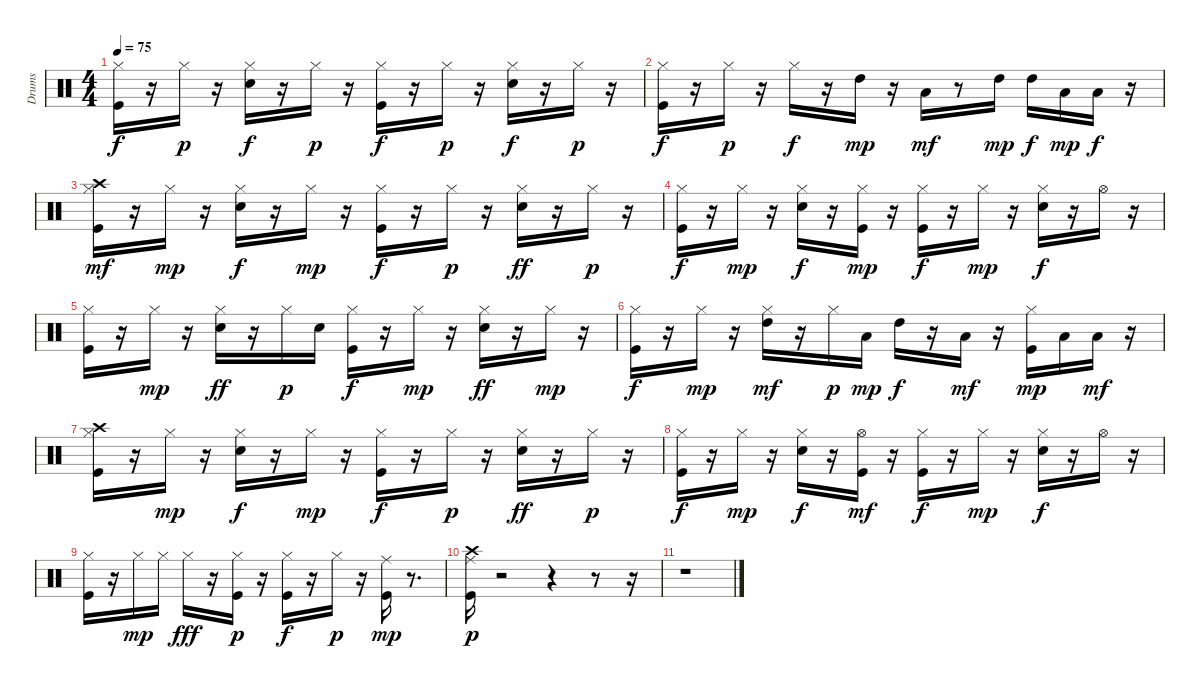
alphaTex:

\track ("Drums   " "Drums   ") {instrument percussion}
\staff {score}
\articulation defaults
\ts (4 4)
\tempo 75
\clef neutral
\ks c
("Kick (hit)" "Hi-Hat (closed)").16{dy f} r.16 "Hi-Hat (closed)".16{dy p} r.16 ("Snare (hit) 2" "Hi-Hat (closed)").16{dy f} r.16 "Hi-Hat (closed)".16{dy p} r.16 ("Kick (hit)" "Hi-Hat (closed)").16{dy f} r.16 "Hi-Hat (closed)".16{dy p} r.16 ("Snare (hit) 2" "Hi-Hat (closed)").16{dy f} r.16 "Hi-Hat (closed)".16{dy p} r.16 |
("Kick (hit)" "Hi-Hat (closed)").16{dy f} r.16 "Hi-Hat (closed)".16{dy p} r.16 "Hi-Hat (closed)".16{dy f} r.16 "High Tom (hit)".16{dy mp} r.16 "Low Tom (hit)".16{dy mf} r.8 "High Tom (hit)".16{dy mp} "High Tom (hit)".16{dy f} "Low Tom (hit)".16{dy mp} "Low Tom (hit)".16{dy f} r.16 |
("Kick (hit)" "Hi-Hat (closed)" "Crash high (hit)").16{dy mf} r.16 "Hi-Hat (closed)".16{dy mp} r.16 ("Snare (hit) 2" "Hi-Hat (closed)").16{dy f} r.16 "Hi-Hat (closed)".16{dy mp} r.16 ("Kick (hit)" "Hi-Hat (closed)").16{dy f} r.16 "Hi-Hat (closed)".16{dy p} r.16 ("Snare (hit) 2" "Hi-Hat (closed)").16{dy ff} r.16 "Hi-Hat (closed)".16{dy p} r.16 |
("Kick (hit)" "Hi-Hat (closed)").16{dy f} r.16 "Hi-Hat (closed)".16{dy mp} r.16 ("Snare (hit) 2" "Hi-Hat (closed)").16{dy f} r.16 ("Kick (hit)" "Hi-Hat (closed)").16{dy mp} r.16 ("Kick (hit)" "Hi-Hat (closed)").16{dy f} r.16 "Hi-Hat (closed)".16{dy mp} r.16 ("Snare (hit) 2" "Hi-Hat (closed)").16{dy f} r.16 "Hi-Hat (open)".16 r.16 |
("Kick (hit)" "Hi-Hat (closed)").16 r.16 "Hi-Hat (closed)".16{dy mp} r.16 ("Snare (hit) 2" "Hi-Hat (closed)").16{dy ff} r.16 "Hi-Hat (closed)".16{dy p} "Snare (hit) 2".16 ("Kick (hit)" "Hi-Hat (closed)").16{dy f} r.16 "Hi-Hat (closed)".16{dy mp} r.16 ("Snare (hit) 2" "Hi-Hat (closed)").16{dy ff} r.16 "Hi-Hat (closed)".16{dy mp} r.16 |
("Kick (hit)" "Hi-Hat (closed)").16{dy f} r.16 "Hi-Hat (closed)".16{dy mp} r.16 ("Hi-Hat (closed)" "High Tom (hit)").16{dy mf} r.16 "Hi-Hat (closed)".16{dy p} "Low Tom (hit)".16{dy mp} "High Tom (hit)".16{dy f} r.16 "Low Tom (hit)".16{dy mf} r.16 ("Kick (hit)" "Hi-Hat (closed)").16{dy mp} "Low Tom (hit)".16 "Low Floor Tom (hit)".16{dy mf} r.16 |
("Kick (hit)" "Hi-Hat (closed)" "Crash high (hit)").16 r.16 "Hi-Hat (closed)".16{dy mp} r.16 ("Snare (hit) 2" "Hi-Hat (closed)").16{dy f} r.16 "Hi-Hat (closed)".16{dy mp} r.16 ("Kick (hit)" "Hi-Hat (closed)").16{dy f} r.16 "Hi-Hat (closed)".16{dy p} r.16 ("Snare (hit) 2" "Hi-Hat (closed)").16{dy ff} r.16 "Hi-Hat (closed)".16{dy p} r.16 |
("Kick (hit)" "Hi-Hat (closed)").16{dy f} r.16 "Hi-Hat (closed)".16{dy mp} r.16 ("Snare (hit) 2" "Hi-Hat (closed)").16{dy f} r.16 ("Kick (hit)" "Hi-Hat (open)").16{dy mf} r.16 ("Kick (hit)" "Hi-Hat (closed)").16{dy f} r.16 "Hi-Hat (closed)".16{dy mp} r.16 ("Snare (hit) 2" "Hi-Hat (closed)").16{dy f} r.16 "Hi-Hat (open)".16 r.16 |
("Kick (hit)" "Hi-Hat (closed)").16 r.16 "Hi-Hat (closed)".16{dy mp} "Hi-Hat (closed)".16 "Hi-Hat (closed)".16{dy fff} r.16 ("Kick (hit)" "Hi-Hat (closed)").16{dy p} r.16 ("Kick (hit)" "Hi-Hat (closed)").16{dy f} r.16 "Hi-Hat (closed)".16{dy p} r.16 ("Kick (hit)" "Ride (middle)").16{dy mp} r.8{d} |
("Kick (hit)" "Ride (middle)" "Crash high (hit)").16{dy p} r.2 r.4 r.8 r.16 |
r.1
